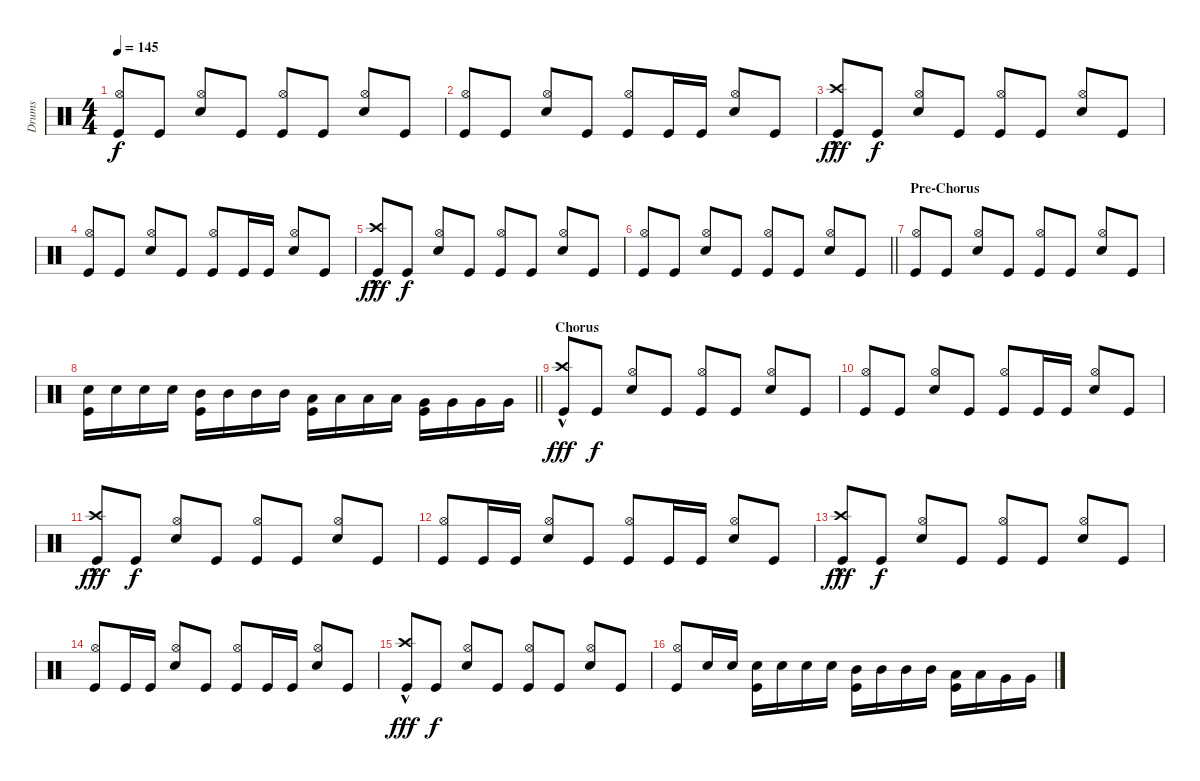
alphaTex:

\track ("Drums" "Drums") {instrument percussion}
\staff {score}
\articulation defaults
\ts (4 4)
\tempo 145
\clef neutral
\ks c
("Hi-Hat (open)" "Kick (hit)").8{dy f beam Up} "Kick (hit)".8{beam Up} ("Hi-Hat (open)" "Snare (hit) 2").8{beam Up} "Kick (hit)".8{beam Up} ("Hi-Hat (open)" "Kick (hit)").8{beam Up} "Kick (hit)".8{beam Up} ("Hi-Hat (open)" "Snare (hit) 2").8{beam Up} "Kick (hit)".8{beam Up} |
("Hi-Hat (open)" "Kick (hit)").8{beam Up} "Kick (hit)".8{beam Up} ("Hi-Hat (open)" "Snare (hit) 2").8{beam Up} "Kick (hit)".8{beam Up} ("Hi-Hat (open)" "Kick (hit)").8{beam Up} "Kick (hit)".16{beam Up} "Kick (hit)".16{beam Up} ("Hi-Hat (open)" "Snare (hit) 2").8{beam Up} "Kick (hit)".8{beam Up} |
("Crash high (hit)"{hac} "Kick (hit)").8{dy fff beam Up} "Kick (hit)".8{dy f beam Up} ("Hi-Hat (open)" "Snare (hit) 2").8{beam Up} "Kick (hit)".8{beam Up} ("Hi-Hat (open)" "Kick (hit)").8{beam Up} "Kick (hit)".8{beam Up} ("Hi-Hat (open)" "Snare (hit) 2").8{beam Up} "Kick (hit)".8{beam Up} |
("Hi-Hat (open)" "Kick (hit)").8{beam Up} "Kick (hit)".8{beam Up} ("Hi-Hat (open)" "Snare (hit) 2").8{beam Up} "Kick (hit)".8{beam Up} ("Hi-Hat (open)" "Kick (hit)").8{beam Up} "Kick (hit)".16{beam Up} "Kick (hit)".16{beam Up} ("Hi-Hat (open)" "Snare (hit) 2").8{beam Up} "Kick (hit)".8{beam Up} |
("Crash high (hit)"{hac} "Kick (hit)").8{dy fff beam Up} "Kick (hit)".8{dy f beam Up} ("Hi-Hat (open)" "Snare (hit) 2").8{beam Up} "Kick (hit)".8{beam Up} ("Hi-Hat (open)" "Kick (hit)").8{beam Up} "Kick (hit)".8{beam Up} ("Hi-Hat (open)" "Snare (hit) 2").8{beam Up} "Kick (hit)".8{beam Up} |
\barLineRight lightlight
("Hi-Hat (open)" "Kick (hit)").8{beam Up} "Kick (hit)".8{beam Up} ("Hi-Hat (open)" "Snare (hit) 2").8{beam Up} "Kick (hit)".8{beam Up} ("Hi-Hat (open)" "Kick (hit)").8{beam Up} "Kick (hit)".8{beam Up} ("Hi-Hat (open)" "Snare (hit) 2").8{beam Up} "Kick (hit)".8{beam Up} |
\section ("" "Pre-Chorus")
("Hi-Hat (open)" "Kick (hit)").8{beam Up} "Kick (hit)".8{beam Up} ("Hi-Hat (open)" "Snare (hit) 2").8{beam Up} "Kick (hit)".8{beam Up} ("Hi-Hat (open)" "Kick (hit)").8{beam Up} "Kick (hit)".8{beam Up} ("Hi-Hat (open)" "Snare (hit) 2").8{beam Up} "Kick (hit)".8{beam Up} |
\barLineRight lightlight
("Snare (hit) 2" "Kick (hit)").16{beam Down} "Snare (hit) 2".16{beam Down} "Snare (hit) 2".16{beam Down} "Snare (hit) 2".16{beam Down} ("Mid Tom (hit)" "Kick (hit)").16{beam Down} "Mid Tom (hit)".16{beam Down} "Mid Tom (hit)".16{beam Down} "Mid Tom (hit)".16{beam Down} ("Low Tom (hit)" "Kick (hit)").16{beam Down} "Low Tom (hit)".16{beam Down} "Low Tom (hit)".16{beam Down} "Low Tom (hit)".16{beam Down} ("Very Low Tom (hit)" "Kick (hit)").16{beam Down} "Very Low Tom (hit)".16{beam Down} "Very Low Tom (hit)".16{beam Down} "Very Low Tom (hit)".16{beam Down} |
\section ("" "Chorus")
("Crash high (hit)"{hac} "Kick (hit)").8{dy fff beam Up} "Kick (hit)".8{dy f beam Up} ("Hi-Hat (open)" "Snare (hit) 2").8{beam Up} "Kick (hit)".8{beam Up} ("Hi-Hat (open)" "Kick (hit)").8{beam Up} "Kick (hit)".8{beam Up} ("Hi-Hat (open)" "Snare (hit) 2").8{beam Up} "Kick (hit)".8{beam Up} |
("Hi-Hat (open)" "Kick (hit)").8{beam Up} "Kick (hit)".8{beam Up} ("Hi-Hat (open)" "Snare (hit) 2").8{beam Up} "Kick (hit)".8{beam Up} ("Hi-Hat (open)" "Kick (hit)").8{beam Up} "Kick (hit)".16{beam Up} "Kick (hit)".16{beam Up} ("Hi-Hat (open)" "Snare (hit) 2").8{beam Up} "Kick (hit)".8{beam Up} |
("Crash high (hit)"{hac} "Kick (hit)").8{dy fff beam Up} "Kick (hit)".8{dy f beam Up} ("Hi-Hat (open)" "Snare (hit) 2").8{beam Up} "Kick (hit)".8{beam Up} ("Hi-Hat (open)" "Kick (hit)").8{beam Up} "Kick (hit)".8{beam Up} ("Hi-Hat (open)" "Snare (hit) 2").8{beam Up} "Kick (hit)".8{beam Up} |
("Hi-Hat (open)" "Kick (hit)").8{beam Up} "Kick (hit)".16{beam Up} "Kick (hit)".16{beam Up} ("Hi-Hat (open)" "Snare (hit) 2").8{beam Up} "Kick (hit)".8{beam Up} ("Hi-Hat (open)" "Kick (hit)").8{beam Up} "Kick (hit)".16{beam Up} "Kick (hit)".16{beam Up} ("Hi-Hat (open)" "Snare (hit) 2").8{beam Up} "Kick (hit)".8{beam Up} |
("Crash high (hit)"{hac} "Kick (hit)").8{dy fff beam Up} "Kick (hit)".8{dy f beam Up} ("Hi-Hat (open)" "Snare (hit) 2").8{beam Up} "Kick (hit)".8{beam Up} ("Hi-Hat (open)" "Kick (hit)").8{beam Up} "Kick (hit)".8{beam Up} ("Hi-Hat (open)" "Snare (hit) 2").8{beam Up} "Kick (hit)".8{beam Up} |
("Hi-Hat (open)" "Kick (hit)").8{beam Up} "Kick (hit)".16{beam Up} "Kick (hit)".16{beam Up} ("Hi-Hat (open)" "Snare (hit) 2").8{beam Up} "Kick (hit)".8{beam Up} ("Hi-Hat (open)" "Kick (hit)").8{beam Up} "Kick (hit)".16{beam Up} "Kick (hit)".16{beam Up} ("Hi-Hat (open)" "Snare (hit) 2").8{beam Up} "Kick (hit)".8{beam Up} |
("Crash high (hit)"{hac} "Kick (hit)").8{dy fff beam Up} "Kick (hit)".8{dy f beam Up} ("Hi-Hat (open)" "Snare (hit) 2").8{beam Up} "Kick (hit)".8{beam Up} ("Hi-Hat (open)" "Kick (hit)").8{beam Up} "Kick (hit)".8{beam Up} ("Hi-Hat (open)" "Snare (hit) 2").8{beam Up} "Kick (hit)".8{beam Up} |
("Hi-Hat (open)" "Kick (hit)").8{beam Up} "Snare (hit) 2".16{beam Up} "Snare (hit) 2".16{beam Up} ("Snare (hit) 2" "Kick (hit)").16{beam Down} "Snare (hit) 2".16{beam Down} "Snare (hit) 2".16{beam Down} "Snare (hit) 2".16{beam Down} ("Mid Tom (hit)" "Kick (hit)").16{beam Down} "Mid Tom (hit)".16{beam Down} "Mid Tom (hit)".16{beam Down} "Mid Tom (hit)".16{beam Down} ("Low Tom (hit)" "Kick (hit)").16{beam Down} "Low Tom (hit)".16{beam Down} "Very Low Tom (hit)".16{beam Down} "Very Low Tom (hit)".16{beam Down}
